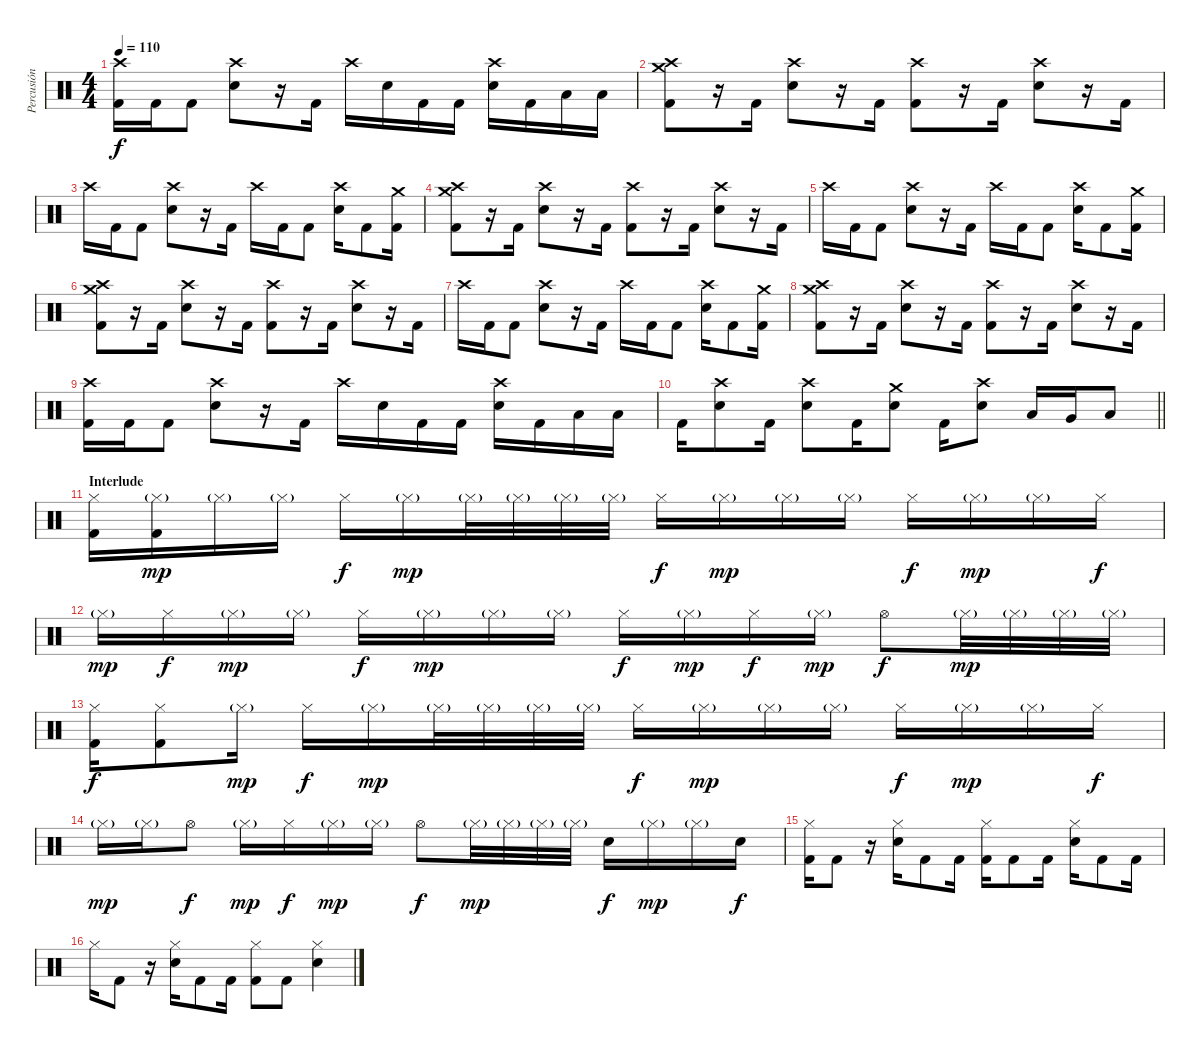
\track ("Percusión" "Percusión") {instrument percussion}
\staff {score}
\articulation defaults
\ts (4 4)
\tempo 110
\clef neutral
\ks c
("Crash high (hit)" "Kick (hit) 2").16{dy f} "Kick (hit) 2".16 "Kick (hit) 2".8 ("Crash high (hit)" "Snare (hit) 2").8 r.16 "Kick (hit) 2".16 "Crash high (hit)".16 "Snare (hit) 2".16 "Kick (hit) 2".16 "Kick (hit) 2".16 ("Crash high (hit)" "Snare (hit) 2").16 "Kick (hit) 2".16 "Low Tom (hit)".16 "Low Floor Tom (hit)".16 |
("Crash high (hit)" "Crash medium (hit)" "Kick (hit) 2").8 r.16 "Kick (hit) 2".16 ("Crash high (hit)" "Snare (hit) 2").8 r.16 "Kick (hit) 2".16 ("Crash high (hit)" "Kick (hit) 2").8 r.16 "Kick (hit) 2".16 ("Crash high (hit)" "Snare (hit) 2").8 r.16 "Kick (hit) 2".16 |
"Crash high (hit)".16 "Kick (hit) 2".16 "Kick (hit) 2".8 ("Crash high (hit)" "Snare (hit) 2").8 r.16 "Kick (hit) 2".16 "Crash high (hit)".16 "Kick (hit) 2".16 "Kick (hit) 2".8 ("Crash high (hit)" "Snare (hit) 2").16 "Kick (hit) 2".8 ("Crash medium (hit)" "Kick (hit) 2").16 |
("Crash high (hit)" "Crash medium (hit)" "Kick (hit) 2").8 r.16 "Kick (hit) 2".16 ("Crash high (hit)" "Snare (hit) 2").8 r.16 "Kick (hit) 2".16 ("Crash high (hit)" "Kick (hit) 2").8 r.16 "Kick (hit) 2".16 ("Crash high (hit)" "Snare (hit) 2").8 r.16 "Kick (hit) 2".16 |
"Crash high (hit)".16 "Kick (hit) 2".16 "Kick (hit) 2".8 ("Crash high (hit)" "Snare (hit) 2").8 r.16 "Kick (hit) 2".16 "Crash high (hit)".16 "Kick (hit) 2".16 "Kick (hit) 2".8 ("Crash high (hit)" "Snare (hit) 2").16 "Kick (hit) 2".8 ("Crash medium (hit)" "Kick (hit) 2").16 |
("Crash high (hit)" "Crash medium (hit)" "Kick (hit) 2").8 r.16 "Kick (hit) 2".16 ("Crash high (hit)" "Snare (hit) 2").8 r.16 "Kick (hit) 2".16 ("Crash high (hit)" "Kick (hit) 2").8 r.16 "Kick (hit) 2".16 ("Crash high (hit)" "Snare (hit) 2").8 r.16 "Kick (hit) 2".16 |
"Crash high (hit)".16 "Kick (hit) 2".16 "Kick (hit) 2".8 ("Crash high (hit)" "Snare (hit) 2").8 r.16 "Kick (hit) 2".16 "Crash high (hit)".16 "Kick (hit) 2".16 "Kick (hit) 2".8 ("Crash high (hit)" "Snare (hit) 2").16 "Kick (hit) 2".8 ("Crash medium (hit)" "Kick (hit) 2").16 |
("Crash high (hit)" "Crash medium (hit)" "Kick (hit) 2").8 r.16 "Kick (hit) 2".16 ("Crash high (hit)" "Snare (hit) 2").8 r.16 "Kick (hit) 2".16 ("Crash high (hit)" "Kick (hit) 2").8 r.16 "Kick (hit) 2".16 ("Crash high (hit)" "Snare (hit) 2").8 r.16 "Kick (hit) 2".16 |
("Crash high (hit)" "Kick (hit) 2").16 "Kick (hit) 2".16 "Kick (hit) 2".8 ("Crash high (hit)" "Snare (hit) 2").8 r.16 "Kick (hit) 2".16 "Crash high (hit)".16 "Snare (hit) 2".16 "Kick (hit) 2".16 "Kick (hit) 2".16 ("Crash high (hit)" "Snare (hit) 2").16 "Kick (hit) 2".16 "Low Tom (hit)".16 "Low Floor Tom (hit)".16 |
\barLineRight lightlight "Kick (hit) 2".16
("Crash high (hit)" "Snare (hit) 2").8 "Kick (hit) 2".16 ("Crash high (hit)" "Snare (hit) 2").8 "Kick (hit) 2".16 ("Crash medium (hit)" "Snare (hit) 2").8 "Kick (hit) 2".16 ("Crash high (hit)" "Snare (hit) 2").8 "Low Tom (hit)".16 "Very Low Tom (hit)".16 "Low Floor Tom (hit)".8 |
\section ("" "Interlude")
("Hi-Hat (closed)" "Kick (hit) 2").16 ("Hi-Hat (closed)"{g} "Kick (hit) 2").16{dy mp} "Hi-Hat (closed)"{g}.16 "Hi-Hat (closed)"{g}.16 "Hi-Hat (closed)".16{dy f} "Hi-Hat (closed)"{g}.16{dy mp} "Hi-Hat (closed)"{g}.32 "Hi-Hat (closed)"{g}.32 "Hi-Hat (closed)"{g}.32 "Hi-Hat (closed)"{g}.32 "Hi-Hat (closed)".16{dy f} "Hi-Hat (closed)"{g}.16{dy mp} "Hi-Hat (closed)"{g}.16 "Hi-Hat (closed)"{g}.16 "Hi-Hat (closed)".16{dy f} "Hi-Hat (closed)"{g}.16{dy mp} "Hi-Hat (closed)"{g}.16 "Hi-Hat (closed)".16{dy f} |
"Hi-Hat (closed)"{g}.16{dy mp} "Hi-Hat (closed)".16{dy f} "Hi-Hat (closed)"{g}.16{dy mp} "Hi-Hat (closed)"{g}.16 "Hi-Hat (closed)".16{dy f} "Hi-Hat (closed)"{g}.16{dy mp} "Hi-Hat (closed)"{g}.16 "Hi-Hat (closed)"{g}.16 "Hi-Hat (closed)".16{dy f} "Hi-Hat (closed)"{g}.16{dy mp} "Hi-Hat (closed)".16{dy f} "Hi-Hat (closed)"{g}.16{dy mp} "Hi-Hat (open)".8{dy f} "Hi-Hat (closed)"{g}.32{dy mp} "Hi-Hat (closed)"{g}.32 "Hi-Hat (closed)"{g}.32 "Hi-Hat (closed)"{g}.32 |
("Hi-Hat (closed)" "Kick (hit) 2").16{dy f} ("Hi-Hat (closed)" "Kick (hit) 2").8 "Hi-Hat (closed)"{g}.16{dy mp} "Hi-Hat (closed)".16{dy f} "Hi-Hat (closed)"{g}.16{dy mp} "Hi-Hat (closed)"{g}.32 "Hi-Hat (closed)"{g}.32 "Hi-Hat (closed)"{g}.32 "Hi-Hat (closed)"{g}.32 "Hi-Hat (closed)".16{dy f} "Hi-Hat (closed)"{g}.16{dy mp} "Hi-Hat (closed)"{g}.16 "Hi-Hat (closed)"{g}.16 "Hi-Hat (closed)".16{dy f} "Hi-Hat (closed)"{g}.16{dy mp} "Hi-Hat (closed)"{g}.16 "Hi-Hat (closed)".16{dy f} |
"Hi-Hat (closed)"{g}.16{dy mp} "Hi-Hat (closed)"{g}.16 "Hi-Hat (open)".8{dy f} "Hi-Hat (closed)"{g}.16{dy mp} "Hi-Hat (closed)".16{dy f} "Hi-Hat (closed)"{g}.16{dy mp} "Hi-Hat (closed)"{g}.16 "Hi-Hat (open)".8{dy f} "Hi-Hat (closed)"{g}.32{dy mp} "Hi-Hat (closed)"{g}.32 "Hi-Hat (closed)"{g}.32 "Hi-Hat (closed)"{g}.32 "Snare (hit) 2".16{dy f} "Hi-Hat (closed)"{g}.16{dy mp} "Hi-Hat (closed)"{g}.16 "Snare (hit) 2".16{dy f} |
("Hi-Hat (closed)" "Kick (hit) 2").16 "Kick (hit) 2".8 r.16 ("Hi-Hat (closed)" "Snare (hit) 2").16 "Kick (hit) 2".8 "Kick (hit) 2".16 ("Hi-Hat (closed)" "Kick (hit) 2").16 "Kick (hit) 2".8 "Kick (hit) 2".16 ("Hi-Hat (closed)" "Snare (hit) 2").16 "Kick (hit) 2".8 "Kick (hit) 2".16 |
"Hi-Hat (closed)".16 "Kick (hit) 2".8 r.16 ("Hi-Hat (closed)" "Snare (hit) 2").16 "Kick (hit) 2".8 "Kick (hit) 2".16 ("Hi-Hat (closed)" "Kick (hit) 2").8 "Kick (hit) 2".8 ("Hi-Hat (closed)" "Snare (hit) 2").4
